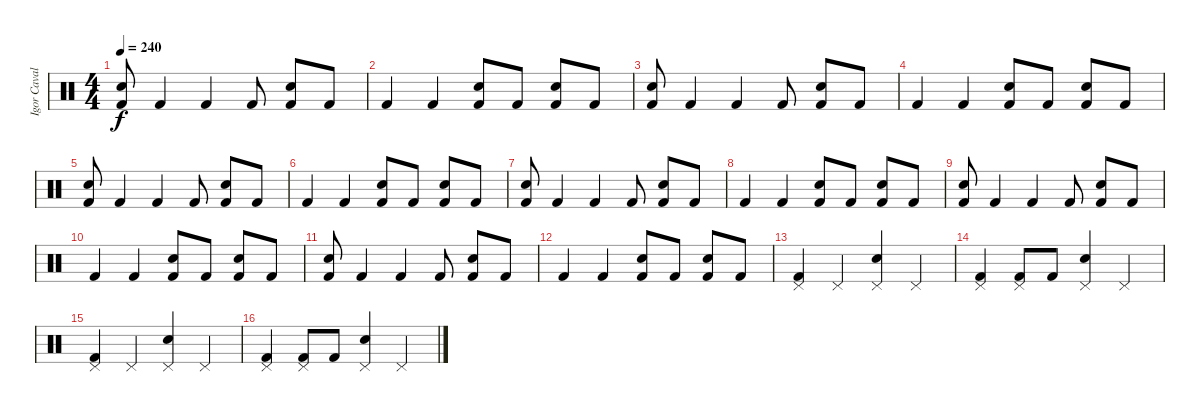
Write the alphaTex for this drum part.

\track ("Igor Cavalera" "Igor Caval") {instrument percussion}
\staff {score}
\articulation defaults
\ts (4 4)
\tempo 240
\clef neutral
\ks c
("Kick (hit) 2" "Snare (hit) 2").8{dy f} "Kick (hit) 2".4 "Kick (hit) 2".4 "Kick (hit) 2".8 ("Kick (hit) 2" "Snare (hit) 2").8 "Kick (hit) 2".8 |
"Kick (hit) 2".4 "Kick (hit) 2".4 ("Kick (hit) 2" "Snare (hit) 2").8 "Kick (hit) 2".8 ("Kick (hit) 2" "Snare (hit) 2").8 "Kick (hit) 2".8 |
("Kick (hit) 2" "Snare (hit) 2").8 "Kick (hit) 2".4 "Kick (hit) 2".4 "Kick (hit) 2".8 ("Kick (hit) 2" "Snare (hit) 2").8 "Kick (hit) 2".8 |
"Kick (hit) 2".4 "Kick (hit) 2".4 ("Kick (hit) 2" "Snare (hit) 2").8 "Kick (hit) 2".8 ("Kick (hit) 2" "Snare (hit) 2").8 "Kick (hit) 2".8 |
\section ("" "")
("Kick (hit) 2" "Snare (hit) 2").8 "Kick (hit) 2".4 "Kick (hit) 2".4 "Kick (hit) 2".8 ("Kick (hit) 2" "Snare (hit) 2").8 "Kick (hit) 2".8 |
"Kick (hit) 2".4 "Kick (hit) 2".4 ("Kick (hit) 2" "Snare (hit) 2").8 "Kick (hit) 2".8 ("Kick (hit) 2" "Snare (hit) 2").8 "Kick (hit) 2".8 |
("Kick (hit) 2" "Snare (hit) 2").8 "Kick (hit) 2".4 "Kick (hit) 2".4 "Kick (hit) 2".8 ("Kick (hit) 2" "Snare (hit) 2").8 "Kick (hit) 2".8 |
"Kick (hit) 2".4 "Kick (hit) 2".4 ("Kick (hit) 2" "Snare (hit) 2").8 "Kick (hit) 2".8 ("Kick (hit) 2" "Snare (hit) 2").8 "Kick (hit) 2".8 |
("Kick (hit) 2" "Snare (hit) 2").8 "Kick (hit) 2".4 "Kick (hit) 2".4 "Kick (hit) 2".8 ("Kick (hit) 2" "Snare (hit) 2").8 "Kick (hit) 2".8 |
"Kick (hit) 2".4 "Kick (hit) 2".4 ("Kick (hit) 2" "Snare (hit) 2").8 "Kick (hit) 2".8 ("Kick (hit) 2" "Snare (hit) 2").8 "Kick (hit) 2".8 |
("Kick (hit) 2" "Snare (hit) 2").8 "Kick (hit) 2".4 "Kick (hit) 2".4 "Kick (hit) 2".8 ("Kick (hit) 2" "Snare (hit) 2").8 "Kick (hit) 2".8 |
"Kick (hit) 2".4 "Kick (hit) 2".4 ("Kick (hit) 2" "Snare (hit) 2").8 "Kick (hit) 2".8 ("Kick (hit) 2" "Snare (hit) 2").8 "Kick (hit) 2".8 |
\section ("" "")
("Kick (hit) 2" "Pedal Hi-Hat (hit)").4 "Pedal Hi-Hat (hit)".4 ("Snare (hit) 2" "Pedal Hi-Hat (hit)").4 "Pedal Hi-Hat (hit)".4 |
("Kick (hit) 2" "Pedal Hi-Hat (hit)").4 ("Kick (hit) 2" "Pedal Hi-Hat (hit)").8 "Kick (hit) 2".8 ("Snare (hit) 2" "Pedal Hi-Hat (hit)").4 "Pedal Hi-Hat (hit)".4 |
("Kick (hit) 2" "Pedal Hi-Hat (hit)").4 "Pedal Hi-Hat (hit)".4 ("Snare (hit) 2" "Pedal Hi-Hat (hit)").4 "Pedal Hi-Hat (hit)".4 |
("Kick (hit) 2" "Pedal Hi-Hat (hit)").4 ("Kick (hit) 2" "Pedal Hi-Hat (hit)").8 "Kick (hit) 2".8 ("Snare (hit) 2" "Pedal Hi-Hat (hit)").4 "Pedal Hi-Hat (hit)".4
